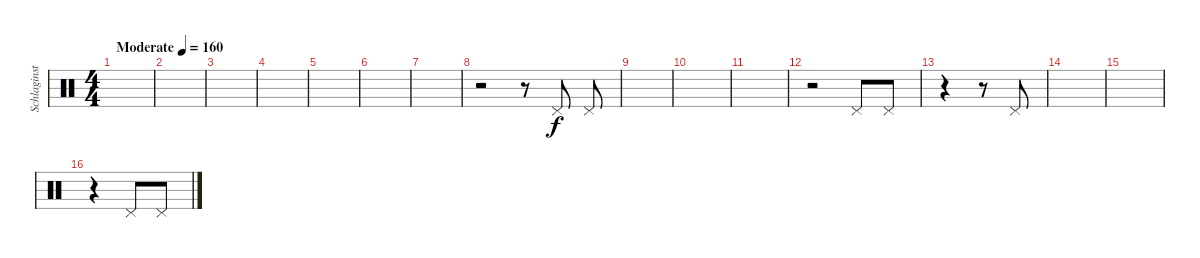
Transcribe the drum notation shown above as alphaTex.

\track ("Schlaginstrumente - Auswahl" "Schlaginst") {instrument percussion}
\staff {score}
\articulation defaults
\ts (4 4)
\tempo (160 "Moderate")
\clef neutral
\ks c
|
|
|
|
|
|
|
r.2 r.8 "Pedal Hi-Hat (hit)".8 "Pedal Hi-Hat (hit)".8 |
|
|
|
r.2 "Pedal Hi-Hat (hit)".8 "Pedal Hi-Hat (hit)".8 |
r.4 r.8 "Pedal Hi-Hat (hit)".8 |
|
|
r.4 "Pedal Hi-Hat (hit)".8 "Pedal Hi-Hat (hit)".8
